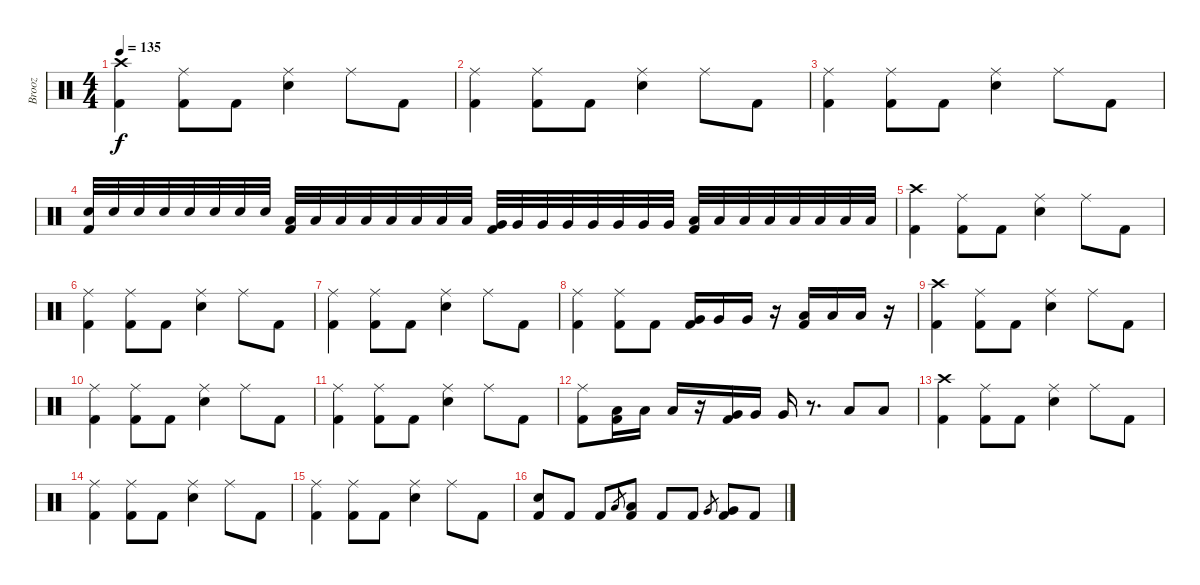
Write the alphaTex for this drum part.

\track ("Brooz" "Brooz") {instrument percussion}
\staff {score}
\articulation defaults
\ts (4 4)
\tempo 135
\clef neutral
\ks c
("Crash high (hit)" "Kick (hit) 2").4{dy f} ("Ride (middle)" "Kick (hit) 2").8 "Kick (hit) 2".8 ("Ride (middle)" "Snare (hit) 2").4 "Ride (middle)".8 "Kick (hit) 2".8 |
("Ride (middle)" "Kick (hit) 2").4 ("Ride (middle)" "Kick (hit) 2").8 "Kick (hit) 2".8 ("Ride (middle)" "Snare (hit) 2").4 "Ride (middle)".8 "Kick (hit) 2".8 |
("Ride (middle)" "Kick (hit) 2").4 ("Ride (middle)" "Kick (hit) 2").8 "Kick (hit) 2".8 ("Ride (middle)" "Snare (hit) 2").4 "Ride (middle)".8 "Kick (hit) 2".8 |
("Snare (hit) 2" "Kick (hit) 2").32 "Snare (hit) 2".32 "Snare (hit) 2".32 "Snare (hit) 2".32 "Snare (hit) 2".32 "Snare (hit) 2".32 "Snare (hit) 2".32 "Snare (hit) 2".32 ("Low Tom (hit)" "Kick (hit) 2").32 "Low Tom (hit)".32 "Low Tom (hit)".32 "Low Tom (hit)".32 "Low Tom (hit)".32 "Low Tom (hit)".32 "Low Tom (hit)".32 "Low Tom (hit)".32 ("Very Low Tom (hit)" "Kick (hit) 2").32 "Very Low Tom (hit)".32 "Very Low Tom (hit)".32 "Very Low Tom (hit)".32 "Very Low Tom (hit)".32 "Very Low Tom (hit)".32 "Very Low Tom (hit)".32 "Very Low Tom (hit)".32 ("Low Floor Tom (hit)" "Kick (hit) 2").32 "Low Floor Tom (hit)".32 "Low Floor Tom (hit)".32 "Low Floor Tom (hit)".32 "Low Floor Tom (hit)".32 "Low Floor Tom (hit)".32 "Low Floor Tom (hit)".32 "Low Floor Tom (hit)".32 |
("Crash high (hit)" "Kick (hit) 2").4 ("Ride (middle)" "Kick (hit) 2").8 "Kick (hit) 2".8 ("Ride (middle)" "Snare (hit) 2").4 "Ride (middle)".8 "Kick (hit) 2".8 |
("Ride (middle)" "Kick (hit) 2").4 ("Ride (middle)" "Kick (hit) 2").8 "Kick (hit) 2".8 ("Ride (middle)" "Snare (hit) 2").4 "Ride (middle)".8 "Kick (hit) 2".8 |
("Ride (middle)" "Kick (hit) 2").4 ("Ride (middle)" "Kick (hit) 2").8 "Kick (hit) 2".8 ("Ride (middle)" "Snare (hit) 2").4 "Ride (middle)".8 "Kick (hit) 2".8 |
("Ride (middle)" "Kick (hit) 2").4 ("Ride (middle)" "Kick (hit) 2").8 "Kick (hit) 2".8 ("Very Low Tom (hit)" "Kick (hit) 2").16 "Very Low Tom (hit)".16 "Very Low Tom (hit)".16 r.16 ("Low Floor Tom (hit)" "Kick (hit) 2").16 "Low Floor Tom (hit)".16 "Low Floor Tom (hit)".16 r.16 |
("Crash high (hit)" "Kick (hit) 2").4 ("Ride (middle)" "Kick (hit) 2").8 "Kick (hit) 2".8 ("Ride (middle)" "Snare (hit) 2").4 "Ride (middle)".8 "Kick (hit) 2".8 |
("Ride (middle)" "Kick (hit) 2").4 ("Ride (middle)" "Kick (hit) 2").8 "Kick (hit) 2".8 ("Ride (middle)" "Snare (hit) 2").4 "Ride (middle)".8 "Kick (hit) 2".8 |
("Ride (middle)" "Kick (hit) 2").4 ("Ride (middle)" "Kick (hit) 2").8 "Kick (hit) 2".8 ("Ride (middle)" "Snare (hit) 2").4 "Ride (middle)".8 "Kick (hit) 2".8 |
("Ride (middle)" "Kick (hit) 2").8 ("Low Tom (hit)" "Kick (hit) 2").16 "Low Tom (hit)".16 "Low Tom (hit)".16 r.16 ("Very Low Tom (hit)" "Kick (hit) 2").16 "Very Low Tom (hit)".16 "Very Low Tom (hit)".16 r.8{d} "Low Floor Tom (hit)".8 "Low Floor Tom (hit)".8 |
("Crash high (hit)" "Kick (hit) 2").4 ("Ride (middle)" "Kick (hit) 2").8 "Kick (hit) 2".8 ("Ride (middle)" "Snare (hit) 2").4 "Ride (middle)".8 "Kick (hit) 2".8 |
("Ride (middle)" "Kick (hit) 2").4 ("Ride (middle)" "Kick (hit) 2").8 "Kick (hit) 2".8 ("Ride (middle)" "Snare (hit) 2").4 "Ride (middle)".8 "Kick (hit) 2".8 |
("Ride (middle)" "Kick (hit) 2").4 ("Ride (middle)" "Kick (hit) 2").8 "Kick (hit) 2".8 ("Ride (middle)" "Snare (hit) 2").4 "Ride (middle)".8 "Kick (hit) 2".8 |
("Snare (hit) 2" "Kick (hit) 2").8 "Kick (hit) 2".8 "Kick (hit) 2".8 "Low Tom (hit)".8{gr} ("Low Tom (hit)" "Kick (hit) 2").8 "Kick (hit) 2".8 "Kick (hit) 2".8 "Very Low Tom (hit)".8{gr} ("Very Low Tom (hit)" "Kick (hit) 2").8 "Kick (hit) 2".8
